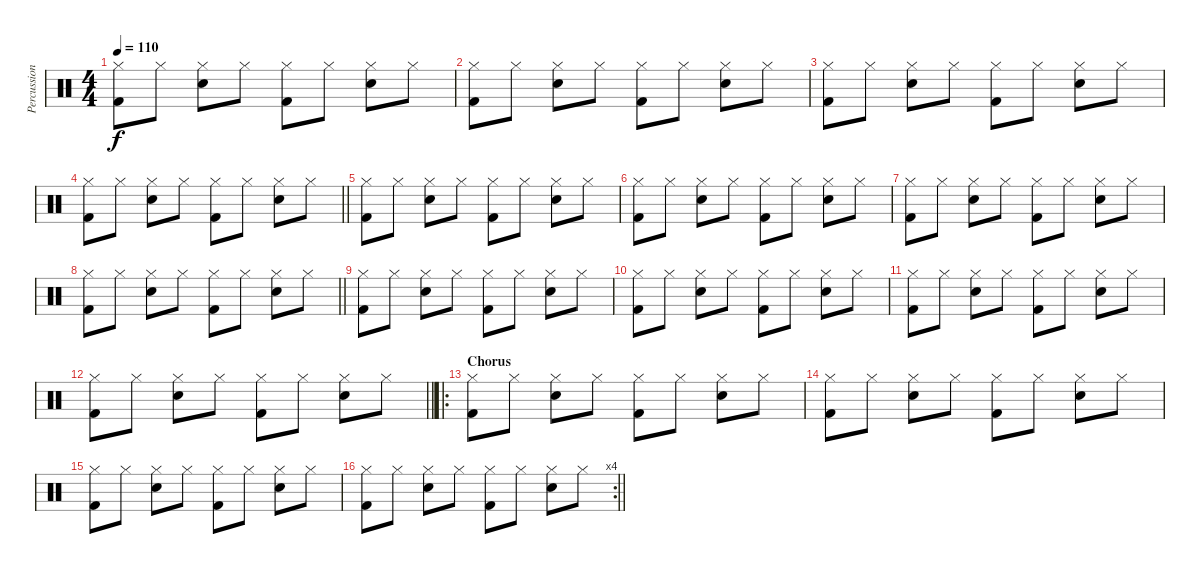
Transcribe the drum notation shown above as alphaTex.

\track ("Percussion" "Percussion") {instrument percussion}
\staff {score}
\articulation defaults
\ts (4 4)
\tempo 110
\clef neutral
\ks c
("Hi-Hat (closed)" "Kick (hit) 2").8{dy f} "Hi-Hat (closed)".8 ("Hi-Hat (closed)" "Electric Snare (hit)").8 "Hi-Hat (closed)".8 ("Hi-Hat (closed)" "Kick (hit) 2").8 "Hi-Hat (closed)".8 ("Hi-Hat (closed)" "Electric Snare (hit)").8 "Hi-Hat (closed)".8 |
("Hi-Hat (closed)" "Kick (hit) 2").8 "Hi-Hat (closed)".8 ("Hi-Hat (closed)" "Electric Snare (hit)").8 "Hi-Hat (closed)".8 ("Hi-Hat (closed)" "Kick (hit) 2").8 "Hi-Hat (closed)".8 ("Hi-Hat (closed)" "Electric Snare (hit)").8 "Hi-Hat (closed)".8 |
("Hi-Hat (closed)" "Kick (hit) 2").8 "Hi-Hat (closed)".8 ("Hi-Hat (closed)" "Electric Snare (hit)").8 "Hi-Hat (closed)".8 ("Hi-Hat (closed)" "Kick (hit) 2").8 "Hi-Hat (closed)".8 ("Hi-Hat (closed)" "Electric Snare (hit)").8 "Hi-Hat (closed)".8 |
\barLineRight lightlight
("Hi-Hat (closed)" "Kick (hit) 2").8 "Hi-Hat (closed)".8 ("Hi-Hat (closed)" "Electric Snare (hit)").8 "Hi-Hat (closed)".8 ("Hi-Hat (closed)" "Kick (hit) 2").8 "Hi-Hat (closed)".8 ("Hi-Hat (closed)" "Electric Snare (hit)").8 "Hi-Hat (closed)".8 |
("Hi-Hat (closed)" "Kick (hit) 2").8 "Hi-Hat (closed)".8 ("Hi-Hat (closed)" "Electric Snare (hit)").8 "Hi-Hat (closed)".8 ("Hi-Hat (closed)" "Kick (hit) 2").8 "Hi-Hat (closed)".8 ("Hi-Hat (closed)" "Electric Snare (hit)").8 "Hi-Hat (closed)".8 |
("Hi-Hat (closed)" "Kick (hit) 2").8 "Hi-Hat (closed)".8 ("Hi-Hat (closed)" "Electric Snare (hit)").8 "Hi-Hat (closed)".8 ("Hi-Hat (closed)" "Kick (hit) 2").8 "Hi-Hat (closed)".8 ("Hi-Hat (closed)" "Electric Snare (hit)").8 "Hi-Hat (closed)".8 |
("Hi-Hat (closed)" "Kick (hit) 2").8 "Hi-Hat (closed)".8 ("Hi-Hat (closed)" "Electric Snare (hit)").8 "Hi-Hat (closed)".8 ("Hi-Hat (closed)" "Kick (hit) 2").8 "Hi-Hat (closed)".8 ("Hi-Hat (closed)" "Electric Snare (hit)").8 "Hi-Hat (closed)".8 |
\barLineRight lightlight
("Hi-Hat (closed)" "Kick (hit) 2").8 "Hi-Hat (closed)".8 ("Hi-Hat (closed)" "Electric Snare (hit)").8 "Hi-Hat (closed)".8 ("Hi-Hat (closed)" "Kick (hit) 2").8 "Hi-Hat (closed)".8 ("Hi-Hat (closed)" "Electric Snare (hit)").8 "Hi-Hat (closed)".8 |
("Hi-Hat (closed)" "Kick (hit) 2").8 "Hi-Hat (closed)".8 ("Hi-Hat (closed)" "Electric Snare (hit)").8 "Hi-Hat (closed)".8 ("Hi-Hat (closed)" "Kick (hit) 2").8 "Hi-Hat (closed)".8 ("Hi-Hat (closed)" "Electric Snare (hit)").8 "Hi-Hat (closed)".8 |
("Hi-Hat (closed)" "Kick (hit) 2").8 "Hi-Hat (closed)".8 ("Hi-Hat (closed)" "Electric Snare (hit)").8 "Hi-Hat (closed)".8 ("Hi-Hat (closed)" "Kick (hit) 2").8 "Hi-Hat (closed)".8 ("Hi-Hat (closed)" "Electric Snare (hit)").8 "Hi-Hat (closed)".8 |
("Hi-Hat (closed)" "Kick (hit) 2").8 "Hi-Hat (closed)".8 ("Hi-Hat (closed)" "Electric Snare (hit)").8 "Hi-Hat (closed)".8 ("Hi-Hat (closed)" "Kick (hit) 2").8 "Hi-Hat (closed)".8 ("Hi-Hat (closed)" "Electric Snare (hit)").8 "Hi-Hat (closed)".8 |
\barLineRight lightlight
("Hi-Hat (closed)" "Kick (hit) 2").8 "Hi-Hat (closed)".8 ("Hi-Hat (closed)" "Electric Snare (hit)").8 "Hi-Hat (closed)".8 ("Hi-Hat (closed)" "Kick (hit) 2").8 "Hi-Hat (closed)".8 ("Hi-Hat (closed)" "Electric Snare (hit)").8 "Hi-Hat (closed)".8 |
\ro
\section ("" "Chorus")
("Hi-Hat (closed)" "Kick (hit) 2").8 "Hi-Hat (closed)".8 ("Hi-Hat (closed)" "Electric Snare (hit)").8 "Hi-Hat (closed)".8 ("Hi-Hat (closed)" "Kick (hit) 2").8 "Hi-Hat (closed)".8 ("Hi-Hat (closed)" "Electric Snare (hit)").8 "Hi-Hat (closed)".8 |
("Hi-Hat (closed)" "Kick (hit) 2").8 "Hi-Hat (closed)".8 ("Hi-Hat (closed)" "Electric Snare (hit)").8 "Hi-Hat (closed)".8 ("Hi-Hat (closed)" "Kick (hit) 2").8 "Hi-Hat (closed)".8 ("Hi-Hat (closed)" "Electric Snare (hit)").8 "Hi-Hat (closed)".8 |
("Hi-Hat (closed)" "Kick (hit) 2").8 "Hi-Hat (closed)".8 ("Hi-Hat (closed)" "Electric Snare (hit)").8 "Hi-Hat (closed)".8 ("Hi-Hat (closed)" "Kick (hit) 2").8 "Hi-Hat (closed)".8 ("Hi-Hat (closed)" "Electric Snare (hit)").8 "Hi-Hat (closed)".8 |
\rc 4
\barLineRight lightlight
("Hi-Hat (closed)" "Kick (hit) 2").8 "Hi-Hat (closed)".8 ("Hi-Hat (closed)" "Electric Snare (hit)").8 "Hi-Hat (closed)".8 ("Hi-Hat (closed)" "Kick (hit) 2").8 "Hi-Hat (closed)".8 ("Hi-Hat (closed)" "Electric Snare (hit)").8 "Hi-Hat (closed)".8
